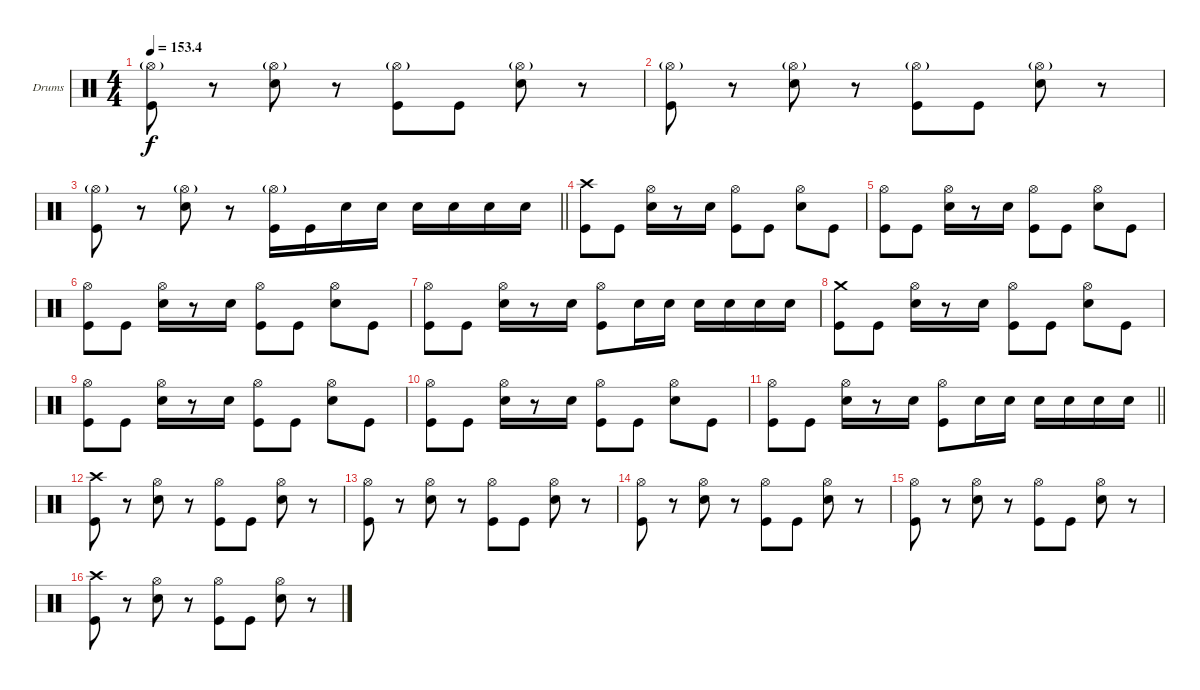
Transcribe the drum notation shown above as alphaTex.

\bracketExtendMode groupsimilarinstruments
\firstSystemTrackNameOrientation horizontal
\otherSystemsTrackNameOrientation horizontal
\track ("Drumkit" "Drums") {instrument percussion}
\staff {score}
\articulation defaults
\ts (4 4)
\tempo
153.4
\accidentals auto
\clef neutral
\ottava regular
\simile none
\ks c
("Hi-Hat (open)"{g} "Kick (hit)").8{dy f} r.8 ("Hi-Hat (open)"{g} "Snare (hit) 2").8 r.8 ("Hi-Hat (open)"{g} "Kick (hit)").8 "Kick (hit)".8 ("Hi-Hat (open)"{g} "Snare (hit) 2").8 r.8 |
("Hi-Hat (open)"{g} "Kick (hit)").8 r.8 ("Hi-Hat (open)"{g} "Snare (hit) 2").8 r.8 ("Hi-Hat (open)"{g} "Kick (hit)").8 "Kick (hit)".8 ("Hi-Hat (open)"{g} "Snare (hit) 2").8 r.8 |
\barLineRight lightlight
("Hi-Hat (open)"{g} "Kick (hit)").8 r.8 ("Hi-Hat (open)"{g} "Snare (hit) 2").8 r.8 ("Hi-Hat (open)"{g} "Kick (hit)").16 "Kick (hit)".16 "Snare (hit) 2".16 "Snare (hit) 2".16 "Snare (hit) 2".16 "Snare (hit) 2".16 "Snare (hit) 2".16 "Snare (hit) 2".16 |
("Crash high (hit)" "Kick (hit)").8 "Kick (hit)".8 ("Hi-Hat (open)" "Snare (hit) 2").16 r.8 "Snare (hit) 2".16 ("Hi-Hat (open)" "Kick (hit)").8 "Kick (hit)".8 ("Hi-Hat (open)" "Snare (hit) 2").8 "Kick (hit)".8 |
("Hi-Hat (open)" "Kick (hit)").8 "Kick (hit)".8 ("Hi-Hat (open)" "Snare (hit) 2").16 r.8 "Snare (hit) 2".16 ("Hi-Hat (open)" "Kick (hit)").8 "Kick (hit)".8 ("Hi-Hat (open)" "Snare (hit) 2").8 "Kick (hit)".8 |
("Hi-Hat (open)" "Kick (hit)").8 "Kick (hit)".8 ("Hi-Hat (open)" "Snare (hit) 2").16 r.8 "Snare (hit) 2".16 ("Hi-Hat (open)" "Kick (hit)").8 "Kick (hit)".8 ("Hi-Hat (open)" "Snare (hit) 2").8 "Kick (hit)".8 |
("Hi-Hat (open)" "Kick (hit)").8 "Kick (hit)".8 ("Hi-Hat (open)" "Snare (hit) 2").16 r.8 "Snare (hit) 2".16 ("Hi-Hat (open)" "Kick (hit)").8 "Snare (hit) 2".16 "Snare (hit) 2".16 "Snare (hit) 2".16 "Snare (hit) 2".16 "Snare (hit) 2".16 "Snare (hit) 2".16 |
("Crash medium (hit)" "Kick (hit)").8 "Kick (hit)".8 ("Hi-Hat (open)" "Snare (hit) 2").16 r.8 "Snare (hit) 2".16 ("Hi-Hat (open)" "Kick (hit)").8 "Kick (hit)".8 ("Hi-Hat (open)" "Snare (hit) 2").8 "Kick (hit)".8 |
("Hi-Hat (open)" "Kick (hit)").8 "Kick (hit)".8 ("Hi-Hat (open)" "Snare (hit) 2").16 r.8 "Snare (hit) 2".16 ("Hi-Hat (open)" "Kick (hit)").8 "Kick (hit)".8 ("Hi-Hat (open)" "Snare (hit) 2").8 "Kick (hit)".8 |
("Hi-Hat (open)" "Kick (hit)").8 "Kick (hit)".8 ("Hi-Hat (open)" "Snare (hit) 2").16 r.8 "Snare (hit) 2".16 ("Hi-Hat (open)" "Kick (hit)").8 "Kick (hit)".8 ("Hi-Hat (open)" "Snare (hit) 2").8 "Kick (hit)".8 |
\barLineRight lightlight
("Hi-Hat (open)" "Kick (hit)").8 "Kick (hit)".8 ("Hi-Hat (open)" "Snare (hit) 2").16 r.8 "Snare (hit) 2".16 ("Hi-Hat (open)" "Kick (hit)").8 "Snare (hit) 2".16 "Snare (hit) 2".16 "Snare (hit) 2".16 "Snare (hit) 2".16 "Snare (hit) 2".16 "Snare (hit) 2".16 |
("Crash high (hit)" "Kick (hit)").8 r.8 ("Hi-Hat (open)" "Snare (hit) 2").8 r.8 ("Hi-Hat (open)" "Kick (hit)").8 "Kick (hit)".8 ("Hi-Hat (open)" "Snare (hit) 2").8 r.8 |
("Hi-Hat (open)" "Kick (hit)").8 r.8 ("Hi-Hat (open)" "Snare (hit) 2").8 r.8 ("Hi-Hat (open)" "Kick (hit)").8 "Kick (hit)".8 ("Hi-Hat (open)" "Snare (hit) 2").8 r.8 |
("Hi-Hat (open)" "Kick (hit)").8 r.8 ("Hi-Hat (open)" "Snare (hit) 2").8 r.8 ("Hi-Hat (open)" "Kick (hit)").8 "Kick (hit)".8 ("Hi-Hat (open)" "Snare (hit) 2").8 r.8 |
("Hi-Hat (open)" "Kick (hit)").8 r.8 ("Hi-Hat (open)" "Snare (hit) 2").8 r.8 ("Hi-Hat (open)" "Kick (hit)").8 "Kick (hit)".8 ("Hi-Hat (open)" "Snare (hit) 2").8 r.8 |
("Crash high (hit)" "Kick (hit)").8 r.8 ("Hi-Hat (open)" "Snare (hit) 2").8 r.8 ("Hi-Hat (open)" "Kick (hit)").8 "Kick (hit)".8 ("Hi-Hat (open)" "Snare (hit) 2").8 r.8
